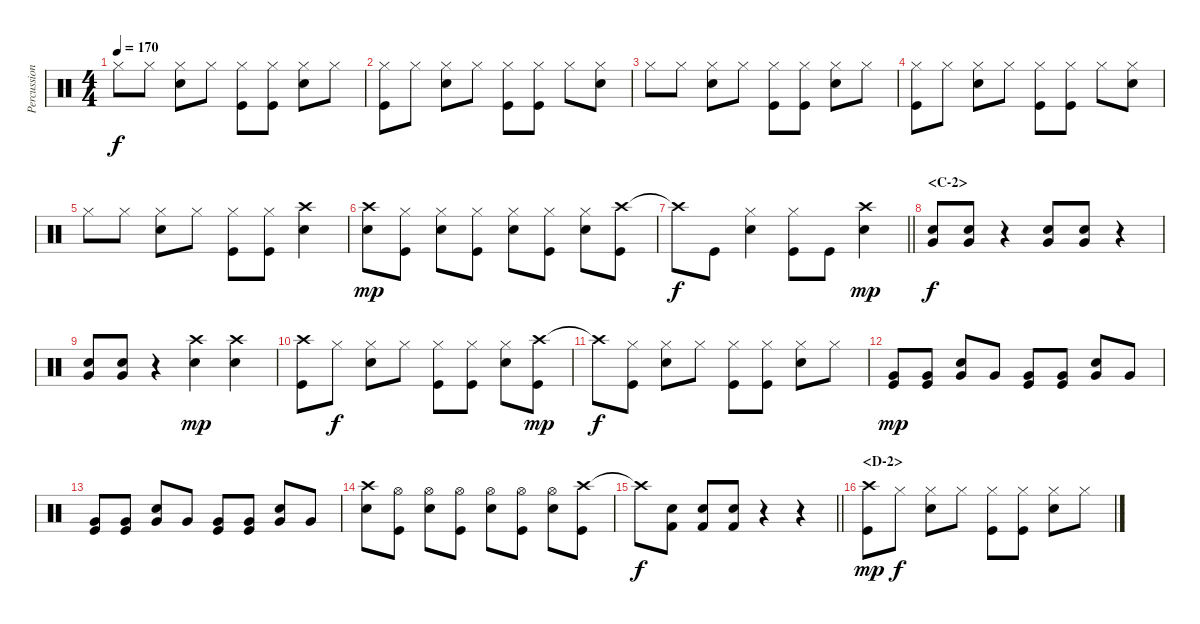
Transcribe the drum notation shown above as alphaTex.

\track ("Percussion" "Percussion") {instrument percussion}
\staff {score}
\articulation defaults
\ts (4 4)
\tempo 170
\clef neutral
\ks c "Hi-Hat (closed)".8{dy f} "Hi-Hat (closed)".8
("Hi-Hat (closed)" "Snare (hit) 2").8 "Hi-Hat (closed)".8 ("Hi-Hat (closed)" "Kick (hit)").8 ("Hi-Hat (closed)" "Kick (hit)").8 ("Snare (hit) 2" "Hi-Hat (closed)").8 "Hi-Hat (closed)".8 |
("Hi-Hat (closed)" "Kick (hit)").8 "Hi-Hat (closed)".8 ("Hi-Hat (closed)" "Snare (hit) 2").8 "Hi-Hat (closed)".8 ("Hi-Hat (closed)" "Kick (hit)").8 ("Hi-Hat (closed)" "Kick (hit)").8 "Hi-Hat (closed)".8 ("Hi-Hat (closed)" "Snare (hit) 2").8 |
"Hi-Hat (closed)".8 "Hi-Hat (closed)".8 ("Hi-Hat (closed)" "Snare (hit) 2").8 "Hi-Hat (closed)".8 ("Hi-Hat (closed)" "Kick (hit)").8 ("Hi-Hat (closed)" "Kick (hit)").8 ("Snare (hit) 2" "Hi-Hat (closed)").8 "Hi-Hat (closed)".8 |
("Hi-Hat (closed)" "Kick (hit)").8 "Hi-Hat (closed)".8 ("Hi-Hat (closed)" "Snare (hit) 2").8 "Hi-Hat (closed)".8 ("Hi-Hat (closed)" "Kick (hit)").8 ("Hi-Hat (closed)" "Kick (hit)").8 "Hi-Hat (closed)".8 ("Hi-Hat (closed)" "Snare (hit) 2").8 |
"Hi-Hat (closed)".8 "Hi-Hat (closed)".8 ("Hi-Hat (closed)" "Snare (hit) 2").8 "Hi-Hat (closed)".8 ("Hi-Hat (closed)" "Kick (hit)").8 ("Hi-Hat (closed)" "Kick (hit)").8 ("Snare (hit) 2" "Crash high (hit)").4 |
("Crash high (hit)" "Snare (hit) 2").8{dy mp} ("Hi-Hat (closed)" "Kick (hit)").8 ("Hi-Hat (closed)" "Snare (hit) 2").8 ("Hi-Hat (closed)" "Kick (hit)").8 ("Hi-Hat (closed)" "Snare (hit) 2").8 ("Hi-Hat (closed)" "Kick (hit)").8 ("Hi-Hat (closed)" "Snare (hit) 2").8 ("Crash high (hit)" "Kick (hit)").8 |
\barLineRight lightlight "Crash high (hit)"{t}.8{dy f} "Kick (hit)".8
("Hi-Hat (closed)" "Snare (hit) 2").4 ("Hi-Hat (closed)" "Kick (hit)").8 "Kick (hit)".8 ("Crash high (hit)" "Snare (hit) 2").4{dy mp} |
\section ("" "<C-2>")
("Very Low Tom (hit)" "Snare (hit) 2").8{dy f} ("Very Low Tom (hit)" "Snare (hit) 2").8 r.4 ("Very Low Tom (hit)" "Snare (hit) 2").8 ("Very Low Tom (hit)" "Snare (hit) 2").8 r.4 |
("Very Low Tom (hit)" "Snare (hit) 2").8 ("Very Low Tom (hit)" "Snare (hit) 2").8 r.4 ("Snare (hit) 2" "Crash high (hit)").4{dy mp} ("Crash high (hit)" "Snare (hit) 2").4 |
("Crash high (hit)" "Kick (hit)").8 "Hi-Hat (closed)".8{dy f} ("Hi-Hat (closed)" "Snare (hit) 2").8 "Hi-Hat (closed)".8 ("Hi-Hat (closed)" "Kick (hit)").8 ("Hi-Hat (closed)" "Kick (hit)").8 ("Hi-Hat (closed)" "Snare (hit) 2").8 ("Crash high (hit)" "Kick (hit)").8{dy mp} |
"Crash high (hit)"{t}.8{dy f} ("Hi-Hat (closed)" "Kick (hit)").8 ("Hi-Hat (closed)" "Snare (hit) 2").8 "Hi-Hat (closed)".8 ("Hi-Hat (closed)" "Kick (hit)").8 ("Hi-Hat (closed)" "Kick (hit)").8 ("Hi-Hat (closed)" "Snare (hit) 2").8 "Hi-Hat (closed)".8 |
("Very Low Tom (hit)" "Kick (hit)").8{dy mp} ("Very Low Tom (hit)" "Kick (hit)").8 ("Very Low Tom (hit)" "Snare (hit) 2").8 "Very Low Tom (hit)".8 ("Very Low Tom (hit)" "Kick (hit)").8 ("Very Low Tom (hit)" "Kick (hit)").8 ("Very Low Tom (hit)" "Snare (hit) 2").8 "Very Low Tom (hit)".8 |
("Very Low Tom (hit)" "Kick (hit)").8 ("Very Low Tom (hit)" "Kick (hit)").8 ("Very Low Tom (hit)" "Snare (hit) 2").8 "Very Low Tom (hit)".8 ("Very Low Tom (hit)" "Kick (hit)").8 ("Very Low Tom (hit)" "Kick (hit)").8 ("Very Low Tom (hit)" "Snare (hit) 2").8 "Very Low Tom (hit)".8 |
("Crash high (hit)" "Snare (hit) 2").8 ("Hi-Hat (open)" "Kick (hit)").8 ("Hi-Hat (open)" "Snare (hit) 2").8 ("Hi-Hat (open)" "Kick (hit)").8 ("Hi-Hat (open)" "Snare (hit) 2").8 ("Hi-Hat (open)" "Kick (hit)").8 ("Hi-Hat (open)" "Snare (hit) 2").8 ("Crash high (hit)" "Kick (hit)").8 |
\barLineRight lightlight "Crash high (hit)"{t}.8{dy f}
("Snare (hit) 2" "Kick (hit) 2").8 ("Snare (hit) 2" "Kick (hit) 2").8 ("Snare (hit) 2" "Kick (hit) 2").8 r.4 r.4 |
\section ("" "<D-2>")
("Crash high (hit)" "Kick (hit)").8{dy mp} "Hi-Hat (closed)".8{dy f} ("Hi-Hat (closed)" "Snare (hit) 2").8 "Hi-Hat (closed)".8 ("Hi-Hat (closed)" "Kick (hit)").8 ("Hi-Hat (closed)" "Kick (hit)").8 ("Hi-Hat (closed)" "Snare (hit) 2").8 "Hi-Hat (closed)".8
